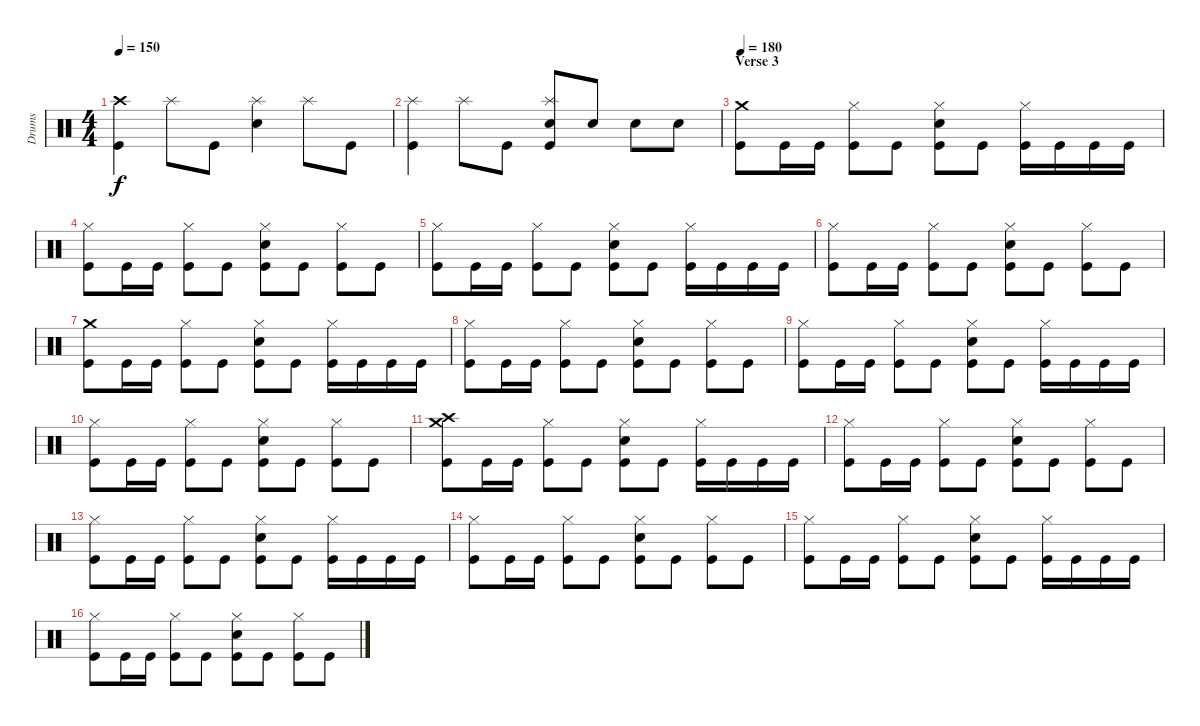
\track ("Drums" "Drums") {instrument percussion}
\staff {score}
\articulation defaults
\ts (4 4)
\tempo 150
\clef neutral
\ks c
("Crash high (hit)" "Kick (hit)").4{dy f} "Splash (hit)".8 "Kick (hit)".8 ("Splash (hit)" "Snare (hit) 2").4 "Splash (hit)".8 "Kick (hit)".8 |
("Splash (hit)" "Kick (hit)").4 "Splash (hit)".8 "Kick (hit)".8 ("Splash (hit)" "Snare (hit) 2" "Kick (hit)").8 "Electric Snare (hit)".8 "Electric Snare (hit)".8 "Electric Snare (hit)".8 |
\section ("" "Verse 3")
\tempo 180
("Crash medium (hit)" "Kick (hit)").8 "Kick (hit)".16 "Kick (hit)".16 ("Hi-Hat (closed)" "Kick (hit)").8 "Kick (hit)".8 ("Hi-Hat (closed)" "Electric Snare (hit)" "Kick (hit)").8 "Kick (hit)".8 ("Hi-Hat (closed)" "Kick (hit)").16 "Kick (hit)".16 "Kick (hit)".16 "Kick (hit)".16 |
("Hi-Hat (closed)" "Kick (hit)").8 "Kick (hit)".16 "Kick (hit)".16 ("Hi-Hat (closed)" "Kick (hit)").8 "Kick (hit)".8 ("Hi-Hat (closed)" "Electric Snare (hit)" "Kick (hit)").8 "Kick (hit)".8 ("Hi-Hat (closed)" "Kick (hit)").8 "Kick (hit)".8 |
("Hi-Hat (closed)" "Kick (hit)").8 "Kick (hit)".16 "Kick (hit)".16 ("Hi-Hat (closed)" "Kick (hit)").8 "Kick (hit)".8 ("Hi-Hat (closed)" "Electric Snare (hit)" "Kick (hit)").8 "Kick (hit)".8 ("Hi-Hat (closed)" "Kick (hit)").16 "Kick (hit)".16 "Kick (hit)".16 "Kick (hit)".16 |
("Hi-Hat (closed)" "Kick (hit)").8 "Kick (hit)".16 "Kick (hit)".16 ("Hi-Hat (closed)" "Kick (hit)").8 "Kick (hit)".8 ("Hi-Hat (closed)" "Electric Snare (hit)" "Kick (hit)").8 "Kick (hit)".8 ("Hi-Hat (closed)" "Kick (hit)").8 "Kick (hit)".8 |
("Crash medium (hit)" "Kick (hit)").8 "Kick (hit)".16 "Kick (hit)".16 ("Hi-Hat (closed)" "Kick (hit)").8 "Kick (hit)".8 ("Hi-Hat (closed)" "Electric Snare (hit)" "Kick (hit)").8 "Kick (hit)".8 ("Hi-Hat (closed)" "Kick (hit)").16 "Kick (hit)".16 "Kick (hit)".16 "Kick (hit)".16 |
("Hi-Hat (closed)" "Kick (hit)").8 "Kick (hit)".16 "Kick (hit)".16 ("Hi-Hat (closed)" "Kick (hit)").8 "Kick (hit)".8 ("Hi-Hat (closed)" "Electric Snare (hit)" "Kick (hit)").8 "Kick (hit)".8 ("Hi-Hat (closed)" "Kick (hit)").8 "Kick (hit)".8 |
("Hi-Hat (closed)" "Kick (hit)").8 "Kick (hit)".16 "Kick (hit)".16 ("Hi-Hat (closed)" "Kick (hit)").8 "Kick (hit)".8 ("Hi-Hat (closed)" "Electric Snare (hit)" "Kick (hit)").8 "Kick (hit)".8 ("Hi-Hat (closed)" "Kick (hit)").16 "Kick (hit)".16 "Kick (hit)".16 "Kick (hit)".16 |
("Hi-Hat (closed)" "Kick (hit)").8 "Kick (hit)".16 "Kick (hit)".16 ("Hi-Hat (closed)" "Kick (hit)").8 "Kick (hit)".8 ("Hi-Hat (closed)" "Electric Snare (hit)" "Kick (hit)").8 "Kick (hit)".8 ("Hi-Hat (closed)" "Kick (hit)").8 "Kick (hit)".8 |
("Crash high (hit)" "Crash medium (hit)" "Kick (hit)").8 "Kick (hit)".16 "Kick (hit)".16 ("Hi-Hat (closed)" "Kick (hit)").8 "Kick (hit)".8 ("Hi-Hat (closed)" "Electric Snare (hit)" "Kick (hit)").8 "Kick (hit)".8 ("Hi-Hat (closed)" "Kick (hit)").16 "Kick (hit)".16 "Kick (hit)".16 "Kick (hit)".16 |
("Hi-Hat (closed)" "Kick (hit)").8 "Kick (hit)".16 "Kick (hit)".16 ("Hi-Hat (closed)" "Kick (hit)").8 "Kick (hit)".8 ("Hi-Hat (closed)" "Electric Snare (hit)" "Kick (hit)").8 "Kick (hit)".8 ("Hi-Hat (closed)" "Kick (hit)").8 "Kick (hit)".8 |
("Hi-Hat (closed)" "Kick (hit)").8 "Kick (hit)".16 "Kick (hit)".16 ("Hi-Hat (closed)" "Kick (hit)").8 "Kick (hit)".8 ("Hi-Hat (closed)" "Electric Snare (hit)" "Kick (hit)").8 "Kick (hit)".8 ("Hi-Hat (closed)" "Kick (hit)").16 "Kick (hit)".16 "Kick (hit)".16 "Kick (hit)".16 |
("Hi-Hat (closed)" "Kick (hit)").8 "Kick (hit)".16 "Kick (hit)".16 ("Hi-Hat (closed)" "Kick (hit)").8 "Kick (hit)".8 ("Hi-Hat (closed)" "Electric Snare (hit)" "Kick (hit)").8 "Kick (hit)".8 ("Hi-Hat (closed)" "Kick (hit)").8 "Kick (hit)".8 |
("Hi-Hat (closed)" "Kick (hit)").8 "Kick (hit)".16 "Kick (hit)".16 ("Hi-Hat (closed)" "Kick (hit)").8 "Kick (hit)".8 ("Hi-Hat (closed)" "Electric Snare (hit)" "Kick (hit)").8 "Kick (hit)".8 ("Hi-Hat (closed)" "Kick (hit)").16 "Kick (hit)".16 "Kick (hit)".16 "Kick (hit)".16 |
("Hi-Hat (closed)" "Kick (hit)").8 "Kick (hit)".16 "Kick (hit)".16 ("Hi-Hat (closed)" "Kick (hit)").8 "Kick (hit)".8 ("Hi-Hat (closed)" "Electric Snare (hit)" "Kick (hit)").8 "Kick (hit)".8 ("Hi-Hat (closed)" "Kick (hit)").8 "Kick (hit)".8
